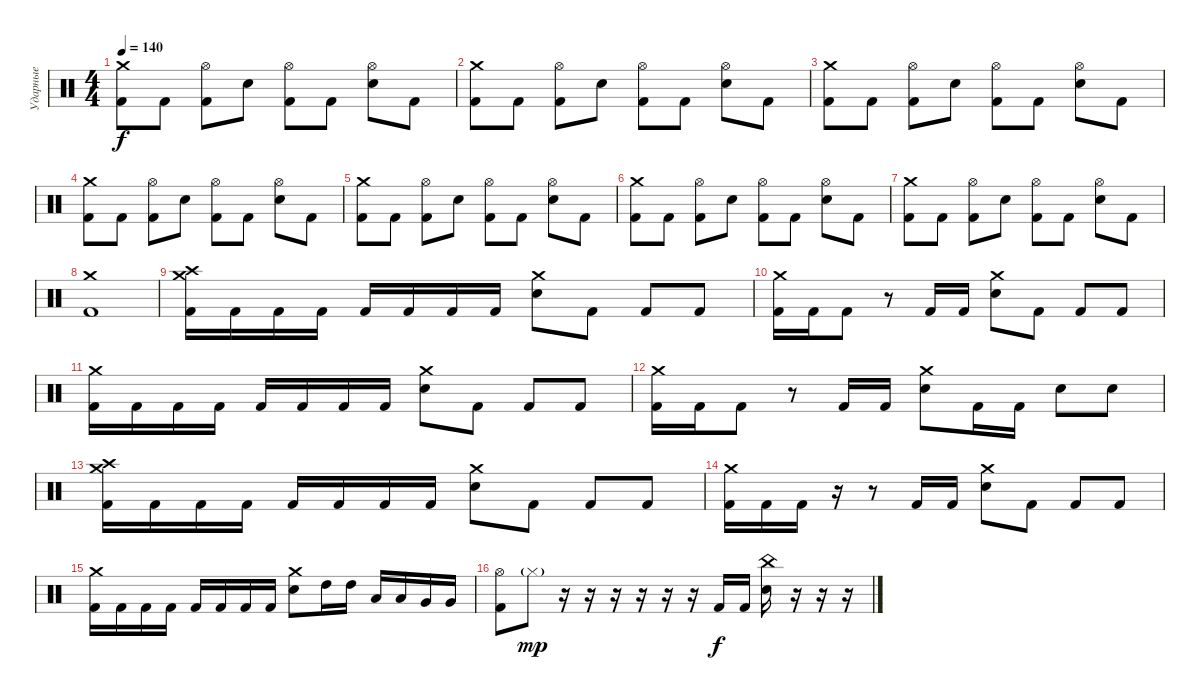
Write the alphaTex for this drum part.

\track ("Ударные" "Ударные") {instrument percussion}
\staff {score}
\articulation defaults
\ts (4 4)
\tempo 140
\clef neutral
\ks c
("Crash medium (hit)" "Kick (hit) 2").8{dy f} "Kick (hit) 2".8 ("Hi-Hat (open)" "Kick (hit) 2").8 "Electric Snare (hit)".8 ("Hi-Hat (open)" "Kick (hit) 2").8 "Kick (hit) 2".8 ("Hi-Hat (open)" "Electric Snare (hit)").8 "Kick (hit) 2".8 |
("Crash medium (hit)" "Kick (hit) 2").8 "Kick (hit) 2".8 ("Hi-Hat (open)" "Kick (hit) 2").8 "Electric Snare (hit)".8 ("Hi-Hat (open)" "Kick (hit) 2").8 "Kick (hit) 2".8 ("Hi-Hat (open)" "Electric Snare (hit)").8 "Kick (hit) 2".8 |
("Crash medium (hit)" "Kick (hit) 2").8 "Kick (hit) 2".8 ("Hi-Hat (open)" "Kick (hit) 2").8 "Electric Snare (hit)".8 ("Hi-Hat (open)" "Kick (hit) 2").8 "Kick (hit) 2".8 ("Hi-Hat (open)" "Electric Snare (hit)").8 "Kick (hit) 2".8 |
("Crash medium (hit)" "Kick (hit) 2").8 "Kick (hit) 2".8 ("Hi-Hat (open)" "Kick (hit) 2").8 "Electric Snare (hit)".8 ("Hi-Hat (open)" "Kick (hit) 2").8 "Kick (hit) 2".8 ("Hi-Hat (open)" "Electric Snare (hit)").8 "Kick (hit) 2".8 |
("Crash medium (hit)" "Kick (hit) 2").8 "Kick (hit) 2".8 ("Hi-Hat (open)" "Kick (hit) 2").8 "Electric Snare (hit)".8 ("Hi-Hat (open)" "Kick (hit) 2").8 "Kick (hit) 2".8 ("Hi-Hat (open)" "Electric Snare (hit)").8 "Kick (hit) 2".8 |
("Crash medium (hit)" "Kick (hit) 2").8 "Kick (hit) 2".8 ("Hi-Hat (open)" "Kick (hit) 2").8 "Electric Snare (hit)".8 ("Hi-Hat (open)" "Kick (hit) 2").8 "Kick (hit) 2".8 ("Hi-Hat (open)" "Electric Snare (hit)").8 "Kick (hit) 2".8 |
("Crash medium (hit)" "Kick (hit) 2").8 "Kick (hit) 2".8 ("Hi-Hat (open)" "Kick (hit) 2").8 "Electric Snare (hit)".8 ("Hi-Hat (open)" "Kick (hit) 2").8 "Kick (hit) 2".8 ("Hi-Hat (open)" "Electric Snare (hit)").8 "Kick (hit) 2".8 |
("Crash medium (hit)" "Kick (hit) 2").1 |
("Crash medium (hit)" "Crash high (hit)" "Kick (hit) 2").16 "Kick (hit) 2".16 "Kick (hit) 2".16 "Kick (hit) 2".16 "Kick (hit) 2".16 "Kick (hit) 2".16 "Kick (hit) 2".16 "Kick (hit) 2".16 ("Crash medium (hit)" "Electric Snare (hit)").8 "Kick (hit) 2".8 "Kick (hit) 2".8 "Kick (hit) 2".8 |
("Crash medium (hit)" "Kick (hit) 2").16 "Kick (hit) 2".16 "Kick (hit) 2".8 r.8 "Kick (hit) 2".16 "Kick (hit) 2".16 ("Crash medium (hit)" "Electric Snare (hit)").8 "Kick (hit) 2".8 "Kick (hit) 2".8 "Kick (hit) 2".8 |
("Crash medium (hit)" "Kick (hit) 2").16 "Kick (hit) 2".16 "Kick (hit) 2".16 "Kick (hit) 2".16 "Kick (hit) 2".16 "Kick (hit) 2".16 "Kick (hit) 2".16 "Kick (hit) 2".16 ("Crash medium (hit)" "Electric Snare (hit)").8 "Kick (hit) 2".8 "Kick (hit) 2".8 "Kick (hit) 2".8 |
("Crash medium (hit)" "Kick (hit) 2").16 "Kick (hit) 2".16 "Kick (hit) 2".8 r.8 "Kick (hit) 2".16 "Kick (hit) 2".16 ("Crash medium (hit)" "Electric Snare (hit)").8 "Kick (hit) 2".16 "Kick (hit) 2".16 "Electric Snare (hit)".8 "Electric Snare (hit)".8 |
("Crash medium (hit)" "Crash high (hit)" "Kick (hit) 2").16 "Kick (hit) 2".16 "Kick (hit) 2".16 "Kick (hit) 2".16 "Kick (hit) 2".16 "Kick (hit) 2".16 "Kick (hit) 2".16 "Kick (hit) 2".16 ("Crash medium (hit)" "Electric Snare (hit)").8 "Kick (hit) 2".8 "Kick (hit) 2".8 "Kick (hit) 2".8 |
("Crash medium (hit)" "Kick (hit) 2").16 "Kick (hit) 2".16 "Kick (hit) 2".16 r.16 r.8 "Kick (hit) 2".16 "Kick (hit) 2".16 ("Crash medium (hit)" "Electric Snare (hit)").8 "Kick (hit) 2".8 "Kick (hit) 2".8 "Kick (hit) 2".8 |
("Crash medium (hit)" "Kick (hit) 2").16 "Kick (hit) 2".16 "Kick (hit) 2".16 "Kick (hit) 2".16 "Kick (hit) 2".16 "Kick (hit) 2".16 "Kick (hit) 2".16 "Kick (hit) 2".16 ("Crash medium (hit)" "Electric Snare (hit)").8 "High Tom (hit)".16 "High Tom (hit)".16 "Low Tom (hit)".16 "Low Tom (hit)".16 "Very Low Tom (hit)".16 "Very Low Tom (hit)".16 |
("Hi-Hat (open)" "Kick (hit) 2").8 "Hi-Hat (closed)"{g}.8{dy mp} r.16 r.16 r.16 r.16 r.16 r.16 "Kick (hit) 2".16{dy f} "Kick (hit) 2".16 ("China (hit)" "Electric Snare (hit)").16 r.16 r.16 r.16
